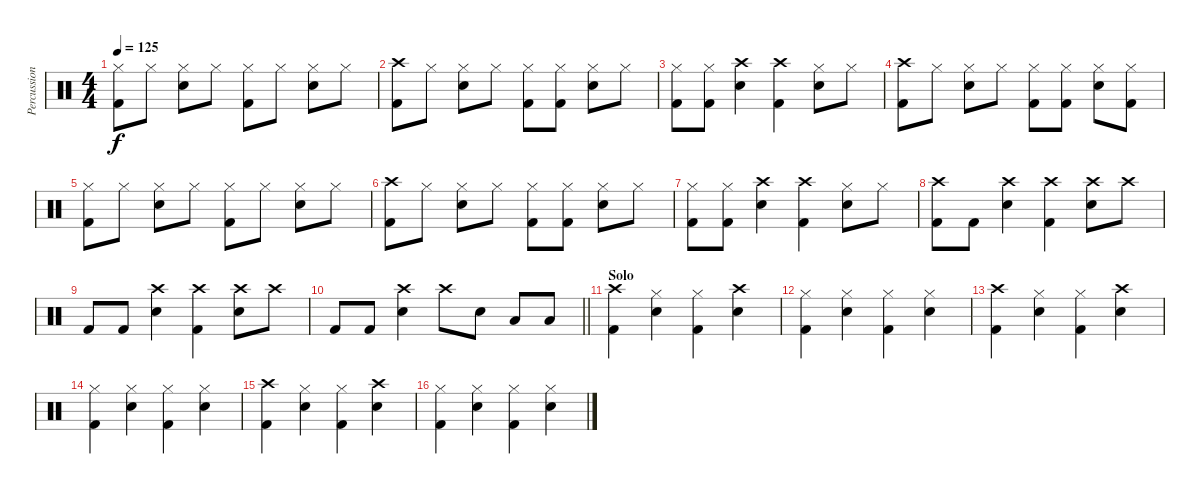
\track ("Percussions" "Percussion") {instrument percussion}
\staff {score}
\articulation defaults
\ts (4 4)
\tempo 125
\clef neutral
\ks c
("Hi-Hat (closed)" "Kick (hit) 2").8{dy f} "Hi-Hat (closed)".8 ("Hi-Hat (closed)" "Snare (hit) 2").8 "Hi-Hat (closed)".8 ("Hi-Hat (closed)" "Kick (hit) 2").8 "Hi-Hat (closed)".8 ("Hi-Hat (closed)" "Snare (hit) 2").8 "Hi-Hat (closed)".8 |
("Crash high (hit)" "Kick (hit) 2").8 "Hi-Hat (closed)".8 ("Hi-Hat (closed)" "Snare (hit) 2").8 "Hi-Hat (closed)".8 ("Hi-Hat (closed)" "Kick (hit) 2").8 ("Hi-Hat (closed)" "Kick (hit) 2").8 ("Hi-Hat (closed)" "Snare (hit) 2").8 "Hi-Hat (closed)".8 |
("Hi-Hat (closed)" "Kick (hit) 2").8 ("Hi-Hat (closed)" "Kick (hit) 2").8 ("Crash high (hit)" "Snare (hit) 2").4 ("Crash high (hit)" "Kick (hit) 2").4 ("Hi-Hat (closed)" "Snare (hit) 2").8 "Hi-Hat (closed)".8 |
("Crash high (hit)" "Kick (hit) 2").8 "Hi-Hat (closed)".8 ("Hi-Hat (closed)" "Snare (hit) 2").8 "Hi-Hat (closed)".8 ("Hi-Hat (closed)" "Kick (hit) 2").8 ("Hi-Hat (closed)" "Kick (hit) 2").8 ("Hi-Hat (closed)" "Snare (hit) 2").8 ("Hi-Hat (closed)" "Kick (hit) 2").8 |
("Hi-Hat (closed)" "Kick (hit) 2").8 "Hi-Hat (closed)".8 ("Hi-Hat (closed)" "Snare (hit) 2").8 "Hi-Hat (closed)".8 ("Hi-Hat (closed)" "Kick (hit) 2").8 "Hi-Hat (closed)".8 ("Hi-Hat (closed)" "Snare (hit) 2").8 "Hi-Hat (closed)".8 |
("Crash high (hit)" "Kick (hit) 2").8 "Hi-Hat (closed)".8 ("Hi-Hat (closed)" "Snare (hit) 2").8 "Hi-Hat (closed)".8 ("Hi-Hat (closed)" "Kick (hit) 2").8 ("Hi-Hat (closed)" "Kick (hit) 2").8 ("Hi-Hat (closed)" "Snare (hit) 2").8 "Hi-Hat (closed)".8 |
("Hi-Hat (closed)" "Kick (hit) 2").8 ("Hi-Hat (closed)" "Kick (hit) 2").8 ("Crash high (hit)" "Snare (hit) 2").4 ("Crash high (hit)" "Kick (hit) 2").4 ("Hi-Hat (closed)" "Snare (hit) 2").8 "Hi-Hat (closed)".8 |
("Crash high (hit)" "Kick (hit) 2").8 "Kick (hit) 2".8 ("Crash high (hit)" "Snare (hit) 2").4 ("Crash high (hit)" "Kick (hit) 2").4 ("Crash high (hit)" "Snare (hit) 2").8 "Crash high (hit)".8 |
"Kick (hit) 2".8 "Kick (hit) 2".8 ("Crash high (hit)" "Snare (hit) 2").4 ("Crash high (hit)" "Kick (hit) 2").4 ("Crash high (hit)" "Snare (hit) 2").8 "Crash high (hit)".8 |
\barLineRight lightlight "Kick (hit) 2".8 "Kick (hit) 2".8
("Crash high (hit)" "Snare (hit) 2").4 "Crash high (hit)".8 "Snare (hit) 2".8 "Low Tom (hit)".8 "Low Tom (hit)".8 |
\section ("" "Solo")
("Crash high (hit)" "Kick (hit) 2").4 ("Hi-Hat (closed)" "Snare (hit) 2").4 ("Hi-Hat (closed)" "Kick (hit) 2").4 ("Crash high (hit)" "Snare (hit) 2").4 |
("Hi-Hat (closed)" "Kick (hit) 2").4 ("Hi-Hat (closed)" "Snare (hit) 2").4 ("Hi-Hat (closed)" "Kick (hit) 2").4 ("Hi-Hat (closed)" "Snare (hit) 2").4 |
("Crash high (hit)" "Kick (hit) 2").4 ("Hi-Hat (closed)" "Snare (hit) 2").4 ("Hi-Hat (closed)" "Kick (hit) 2").4 ("Crash high (hit)" "Snare (hit) 2").4 |
("Hi-Hat (closed)" "Kick (hit) 2").4 ("Hi-Hat (closed)" "Snare (hit) 2").4 ("Hi-Hat (closed)" "Kick (hit) 2").4 ("Hi-Hat (closed)" "Snare (hit) 2").4 |
("Crash high (hit)" "Kick (hit) 2").4 ("Hi-Hat (closed)" "Snare (hit) 2").4 ("Hi-Hat (closed)" "Kick (hit) 2").4 ("Crash high (hit)" "Snare (hit) 2").4 |
("Hi-Hat (closed)" "Kick (hit) 2").4 ("Hi-Hat (closed)" "Snare (hit) 2").4 ("Hi-Hat (closed)" "Kick (hit) 2").4 ("Hi-Hat (closed)" "Snare (hit) 2").4
